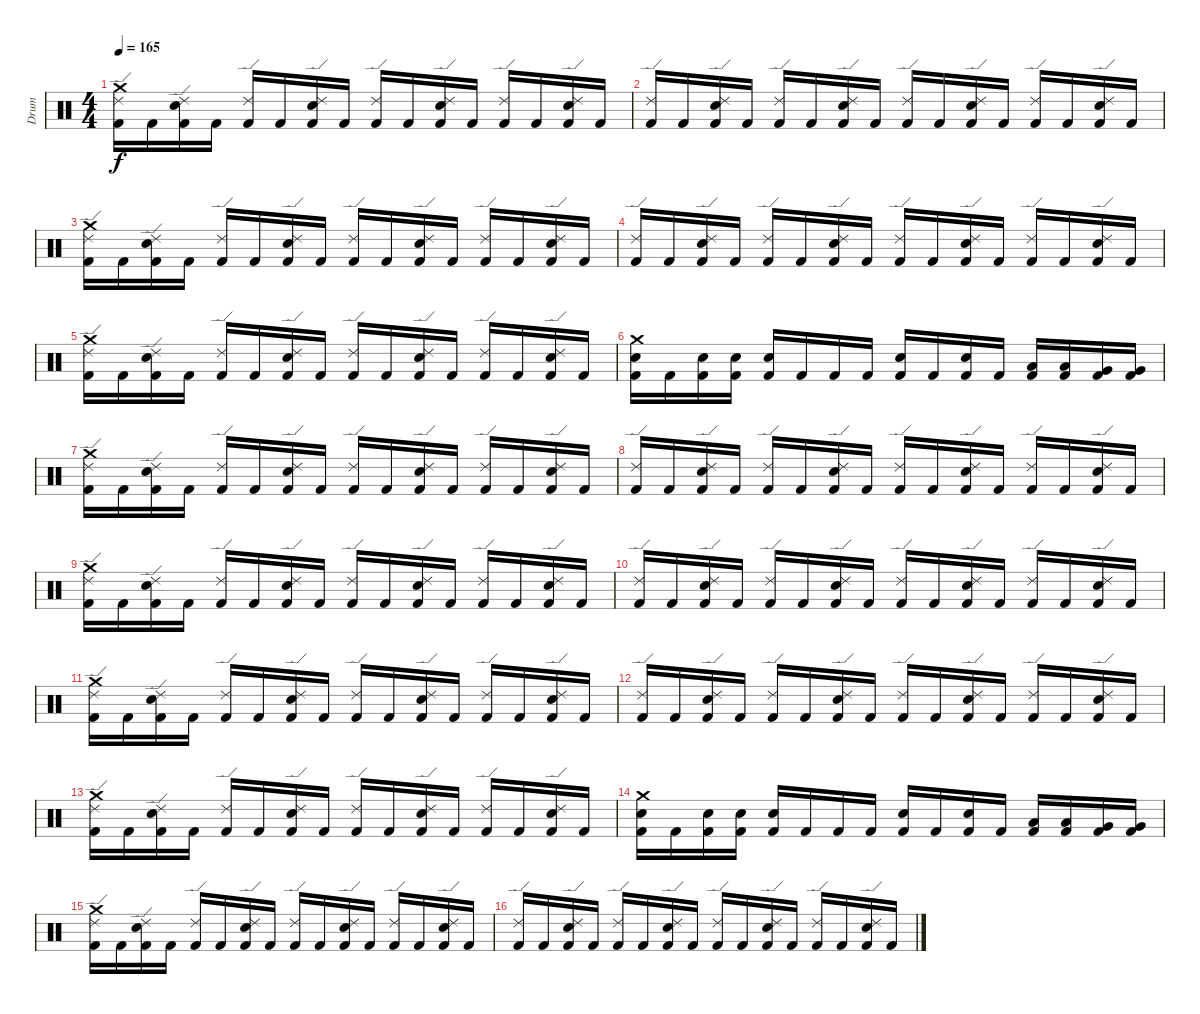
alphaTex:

\track ("Drum" "Drum") {instrument percussion}
\staff {score}
\articulation defaults
\ts (4 4)
\tempo 165
\clef neutral
\ks c
("Crash medium (hit)" "Ride (edge) 2" "Kick (hit) 2").16{dy f} "Kick (hit) 2".16 ("Electric Snare (hit)" "Ride (edge) 2" "Kick (hit) 2").16 "Kick (hit) 2".16 ("Ride (edge) 2" "Kick (hit) 2").16 "Kick (hit) 2".16 ("Electric Snare (hit)" "Ride (edge) 2" "Kick (hit) 2").16 "Kick (hit) 2".16 ("Ride (edge) 2" "Kick (hit) 2").16 "Kick (hit) 2".16 ("Electric Snare (hit)" "Ride (edge) 2" "Kick (hit) 2").16 "Kick (hit) 2".16 ("Ride (edge) 2" "Kick (hit) 2").16 "Kick (hit) 2".16 ("Electric Snare (hit)" "Ride (edge) 2" "Kick (hit) 2").16 "Kick (hit) 2".16 |
("Ride (edge) 2" "Kick (hit) 2").16 "Kick (hit) 2".16 ("Electric Snare (hit)" "Ride (edge) 2" "Kick (hit) 2").16 "Kick (hit) 2".16 ("Ride (edge) 2" "Kick (hit) 2").16 "Kick (hit) 2".16 ("Electric Snare (hit)" "Ride (edge) 2" "Kick (hit) 2").16 "Kick (hit) 2".16 ("Ride (edge) 2" "Kick (hit) 2").16 "Kick (hit) 2".16 ("Electric Snare (hit)" "Ride (edge) 2" "Kick (hit) 2").16 "Kick (hit) 2".16 ("Ride (edge) 2" "Kick (hit) 2").16 "Kick (hit) 2".16 ("Electric Snare (hit)" "Ride (edge) 2" "Kick (hit) 2").16 "Kick (hit) 2".16 |
("Crash medium (hit)" "Ride (edge) 2" "Kick (hit) 2").16 "Kick (hit) 2".16 ("Electric Snare (hit)" "Ride (edge) 2" "Kick (hit) 2").16 "Kick (hit) 2".16 ("Ride (edge) 2" "Kick (hit) 2").16 "Kick (hit) 2".16 ("Electric Snare (hit)" "Ride (edge) 2" "Kick (hit) 2").16 "Kick (hit) 2".16 ("Ride (edge) 2" "Kick (hit) 2").16 "Kick (hit) 2".16 ("Electric Snare (hit)" "Ride (edge) 2" "Kick (hit) 2").16 "Kick (hit) 2".16 ("Ride (edge) 2" "Kick (hit) 2").16 "Kick (hit) 2".16 ("Electric Snare (hit)" "Ride (edge) 2" "Kick (hit) 2").16 "Kick (hit) 2".16 |
("Ride (edge) 2" "Kick (hit) 2").16 "Kick (hit) 2".16 ("Electric Snare (hit)" "Ride (edge) 2" "Kick (hit) 2").16 "Kick (hit) 2".16 ("Ride (edge) 2" "Kick (hit) 2").16 "Kick (hit) 2".16 ("Electric Snare (hit)" "Ride (edge) 2" "Kick (hit) 2").16 "Kick (hit) 2".16 ("Ride (edge) 2" "Kick (hit) 2").16 "Kick (hit) 2".16 ("Electric Snare (hit)" "Ride (edge) 2" "Kick (hit) 2").16 "Kick (hit) 2".16 ("Ride (edge) 2" "Kick (hit) 2").16 "Kick (hit) 2".16 ("Electric Snare (hit)" "Ride (edge) 2" "Kick (hit) 2").16 "Kick (hit) 2".16 |
("Crash medium (hit)" "Ride (edge) 2" "Kick (hit) 2").16 "Kick (hit) 2".16 ("Electric Snare (hit)" "Ride (edge) 2" "Kick (hit) 2").16 "Kick (hit) 2".16 ("Ride (edge) 2" "Kick (hit) 2").16 "Kick (hit) 2".16 ("Electric Snare (hit)" "Ride (edge) 2" "Kick (hit) 2").16 "Kick (hit) 2".16 ("Ride (edge) 2" "Kick (hit) 2").16 "Kick (hit) 2".16 ("Electric Snare (hit)" "Ride (edge) 2" "Kick (hit) 2").16 "Kick (hit) 2".16 ("Ride (edge) 2" "Kick (hit) 2").16 "Kick (hit) 2".16 ("Electric Snare (hit)" "Ride (edge) 2" "Kick (hit) 2").16 "Kick (hit) 2".16 |
("Crash medium (hit)" "Electric Snare (hit)" "Kick (hit) 2").16 "Kick (hit) 2".16 ("Electric Snare (hit)" "Kick (hit) 2").16 ("Electric Snare (hit)" "Kick (hit) 2").16 ("Electric Snare (hit)" "Kick (hit) 2").16 "Kick (hit) 2".16 "Kick (hit) 2".16 "Kick (hit) 2".16 ("Electric Snare (hit)" "Kick (hit) 2").16 "Kick (hit) 2".16 ("Electric Snare (hit)" "Kick (hit) 2").16 "Kick (hit) 2".16 ("Low Tom (hit)" "Kick (hit) 2").16 ("Low Tom (hit)" "Kick (hit) 2").16 ("Very Low Tom (hit)" "Kick (hit) 2").16 ("Very Low Tom (hit)" "Kick (hit) 2").16 |
("Crash medium (hit)" "Ride (edge) 2" "Kick (hit) 2").16 "Kick (hit) 2".16 ("Electric Snare (hit)" "Ride (edge) 2" "Kick (hit) 2").16 "Kick (hit) 2".16 ("Ride (edge) 2" "Kick (hit) 2").16 "Kick (hit) 2".16 ("Electric Snare (hit)" "Ride (edge) 2" "Kick (hit) 2").16 "Kick (hit) 2".16 ("Ride (edge) 2" "Kick (hit) 2").16 "Kick (hit) 2".16 ("Electric Snare (hit)" "Ride (edge) 2" "Kick (hit) 2").16 "Kick (hit) 2".16 ("Ride (edge) 2" "Kick (hit) 2").16 "Kick (hit) 2".16 ("Electric Snare (hit)" "Ride (edge) 2" "Kick (hit) 2").16 "Kick (hit) 2".16 |
("Ride (edge) 2" "Kick (hit) 2").16 "Kick (hit) 2".16 ("Electric Snare (hit)" "Ride (edge) 2" "Kick (hit) 2").16 "Kick (hit) 2".16 ("Ride (edge) 2" "Kick (hit) 2").16 "Kick (hit) 2".16 ("Electric Snare (hit)" "Ride (edge) 2" "Kick (hit) 2").16 "Kick (hit) 2".16 ("Ride (edge) 2" "Kick (hit) 2").16 "Kick (hit) 2".16 ("Electric Snare (hit)" "Ride (edge) 2" "Kick (hit) 2").16 "Kick (hit) 2".16 ("Ride (edge) 2" "Kick (hit) 2").16 "Kick (hit) 2".16 ("Electric Snare (hit)" "Ride (edge) 2" "Kick (hit) 2").16 "Kick (hit) 2".16 |
("Crash medium (hit)" "Ride (edge) 2" "Kick (hit) 2").16 "Kick (hit) 2".16 ("Electric Snare (hit)" "Ride (edge) 2" "Kick (hit) 2").16 "Kick (hit) 2".16 ("Ride (edge) 2" "Kick (hit) 2").16 "Kick (hit) 2".16 ("Electric Snare (hit)" "Ride (edge) 2" "Kick (hit) 2").16 "Kick (hit) 2".16 ("Ride (edge) 2" "Kick (hit) 2").16 "Kick (hit) 2".16 ("Electric Snare (hit)" "Ride (edge) 2" "Kick (hit) 2").16 "Kick (hit) 2".16 ("Ride (edge) 2" "Kick (hit) 2").16 "Kick (hit) 2".16 ("Electric Snare (hit)" "Ride (edge) 2" "Kick (hit) 2").16 "Kick (hit) 2".16 |
("Ride (edge) 2" "Kick (hit) 2").16 "Kick (hit) 2".16 ("Electric Snare (hit)" "Ride (edge) 2" "Kick (hit) 2").16 "Kick (hit) 2".16 ("Ride (edge) 2" "Kick (hit) 2").16 "Kick (hit) 2".16 ("Electric Snare (hit)" "Ride (edge) 2" "Kick (hit) 2").16 "Kick (hit) 2".16 ("Ride (edge) 2" "Kick (hit) 2").16 "Kick (hit) 2".16 ("Electric Snare (hit)" "Ride (edge) 2" "Kick (hit) 2").16 "Kick (hit) 2".16 ("Ride (edge) 2" "Kick (hit) 2").16 "Kick (hit) 2".16 ("Electric Snare (hit)" "Ride (edge) 2" "Kick (hit) 2").16 "Kick (hit) 2".16 |
("Crash medium (hit)" "Ride (edge) 2" "Kick (hit) 2").16 "Kick (hit) 2".16 ("Electric Snare (hit)" "Ride (edge) 2" "Kick (hit) 2").16 "Kick (hit) 2".16 ("Ride (edge) 2" "Kick (hit) 2").16 "Kick (hit) 2".16 ("Electric Snare (hit)" "Ride (edge) 2" "Kick (hit) 2").16 "Kick (hit) 2".16 ("Ride (edge) 2" "Kick (hit) 2").16 "Kick (hit) 2".16 ("Electric Snare (hit)" "Ride (edge) 2" "Kick (hit) 2").16 "Kick (hit) 2".16 ("Ride (edge) 2" "Kick (hit) 2").16 "Kick (hit) 2".16 ("Electric Snare (hit)" "Ride (edge) 2" "Kick (hit) 2").16 "Kick (hit) 2".16 |
("Ride (edge) 2" "Kick (hit) 2").16 "Kick (hit) 2".16 ("Electric Snare (hit)" "Ride (edge) 2" "Kick (hit) 2").16 "Kick (hit) 2".16 ("Ride (edge) 2" "Kick (hit) 2").16 "Kick (hit) 2".16 ("Electric Snare (hit)" "Ride (edge) 2" "Kick (hit) 2").16 "Kick (hit) 2".16 ("Ride (edge) 2" "Kick (hit) 2").16 "Kick (hit) 2".16 ("Electric Snare (hit)" "Ride (edge) 2" "Kick (hit) 2").16 "Kick (hit) 2".16 ("Ride (edge) 2" "Kick (hit) 2").16 "Kick (hit) 2".16 ("Electric Snare (hit)" "Ride (edge) 2" "Kick (hit) 2").16 "Kick (hit) 2".16 |
("Crash medium (hit)" "Ride (edge) 2" "Kick (hit) 2").16 "Kick (hit) 2".16 ("Electric Snare (hit)" "Ride (edge) 2" "Kick (hit) 2").16 "Kick (hit) 2".16 ("Ride (edge) 2" "Kick (hit) 2").16 "Kick (hit) 2".16 ("Electric Snare (hit)" "Ride (edge) 2" "Kick (hit) 2").16 "Kick (hit) 2".16 ("Ride (edge) 2" "Kick (hit) 2").16 "Kick (hit) 2".16 ("Electric Snare (hit)" "Ride (edge) 2" "Kick (hit) 2").16 "Kick (hit) 2".16 ("Ride (edge) 2" "Kick (hit) 2").16 "Kick (hit) 2".16 ("Electric Snare (hit)" "Ride (edge) 2" "Kick (hit) 2").16 "Kick (hit) 2".16 |
("Crash medium (hit)" "Electric Snare (hit)" "Kick (hit) 2").16 "Kick (hit) 2".16 ("Electric Snare (hit)" "Kick (hit) 2").16 ("Electric Snare (hit)" "Kick (hit) 2").16 ("Electric Snare (hit)" "Kick (hit) 2").16 "Kick (hit) 2".16 "Kick (hit) 2".16 "Kick (hit) 2".16 ("Electric Snare (hit)" "Kick (hit) 2").16 "Kick (hit) 2".16 ("Electric Snare (hit)" "Kick (hit) 2").16 "Kick (hit) 2".16 ("Low Tom (hit)" "Kick (hit) 2").16 ("Low Tom (hit)" "Kick (hit) 2").16 ("Very Low Tom (hit)" "Kick (hit) 2").16 ("Very Low Tom (hit)" "Kick (hit) 2").16 |
("Crash medium (hit)" "Ride (edge) 2" "Kick (hit) 2").16 "Kick (hit) 2".16 ("Electric Snare (hit)" "Ride (edge) 2" "Kick (hit) 2").16 "Kick (hit) 2".16 ("Ride (edge) 2" "Kick (hit) 2").16 "Kick (hit) 2".16 ("Electric Snare (hit)" "Ride (edge) 2" "Kick (hit) 2").16 "Kick (hit) 2".16 ("Ride (edge) 2" "Kick (hit) 2").16 "Kick (hit) 2".16 ("Electric Snare (hit)" "Ride (edge) 2" "Kick (hit) 2").16 "Kick (hit) 2".16 ("Ride (edge) 2" "Kick (hit) 2").16 "Kick (hit) 2".16 ("Electric Snare (hit)" "Ride (edge) 2" "Kick (hit) 2").16 "Kick (hit) 2".16 |
("Ride (edge) 2" "Kick (hit) 2").16 "Kick (hit) 2".16 ("Electric Snare (hit)" "Ride (edge) 2" "Kick (hit) 2").16 "Kick (hit) 2".16 ("Ride (edge) 2" "Kick (hit) 2").16 "Kick (hit) 2".16 ("Electric Snare (hit)" "Ride (edge) 2" "Kick (hit) 2").16 "Kick (hit) 2".16 ("Ride (edge) 2" "Kick (hit) 2").16 "Kick (hit) 2".16 ("Electric Snare (hit)" "Ride (edge) 2" "Kick (hit) 2").16 "Kick (hit) 2".16 ("Ride (edge) 2" "Kick (hit) 2").16 "Kick (hit) 2".16 ("Electric Snare (hit)" "Ride (edge) 2" "Kick (hit) 2").16 "Kick (hit) 2".16
